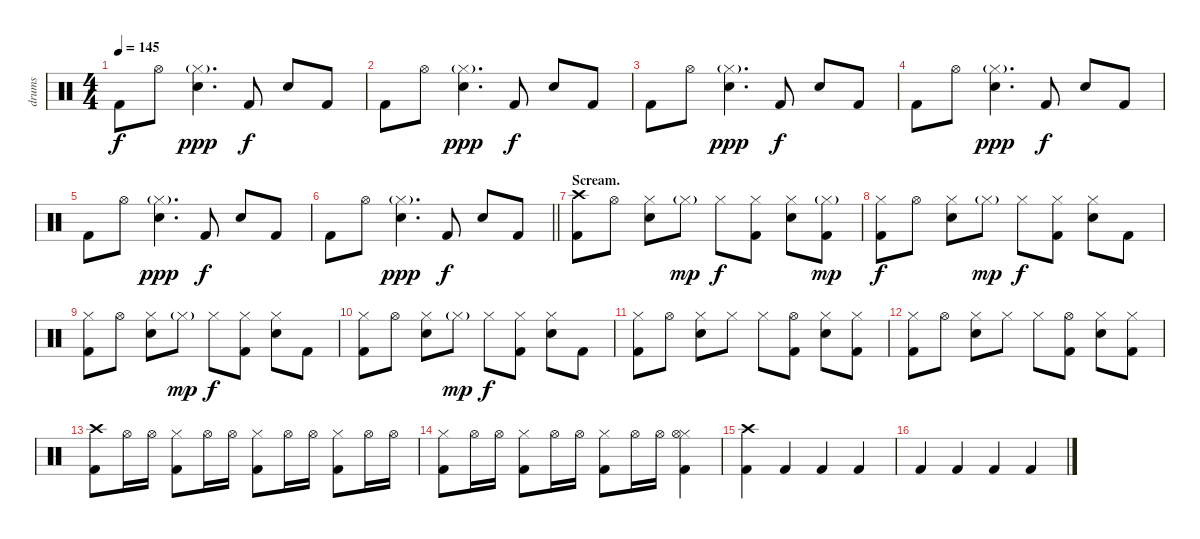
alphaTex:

\track ("drums" "drums") {instrument percussion}
\staff {score}
\articulation defaults
\ts (4 4)
\tempo 145
\clef neutral
\ks c "Kick (hit) 2".8{dy f} "Hi-Hat (open)".8
("Hi-Hat (closed)"{g} "Snare (hit) 2").4{d dy ppp} "Kick (hit) 2".8{dy f} "Snare (hit) 2".8 "Kick (hit) 2".8 |
"Kick (hit) 2".8 "Hi-Hat (open)".8 ("Hi-Hat (closed)"{g} "Snare (hit) 2").4{d dy ppp} "Kick (hit) 2".8{dy f} "Snare (hit) 2".8 "Kick (hit) 2".8 |
"Kick (hit) 2".8 "Hi-Hat (open)".8 ("Hi-Hat (closed)"{g} "Snare (hit) 2").4{d dy ppp} "Kick (hit) 2".8{dy f} "Snare (hit) 2".8 "Kick (hit) 2".8 |
"Kick (hit) 2".8 "Hi-Hat (open)".8 ("Hi-Hat (closed)"{g} "Snare (hit) 2").4{d dy ppp} "Kick (hit) 2".8{dy f} "Snare (hit) 2".8 "Kick (hit) 2".8 |
"Kick (hit) 2".8 "Hi-Hat (open)".8 ("Hi-Hat (closed)"{g} "Snare (hit) 2").4{d dy ppp} "Kick (hit) 2".8{dy f} "Snare (hit) 2".8 "Kick (hit) 2".8 |
\barLineRight lightlight "Kick (hit) 2".8 "Hi-Hat (open)".8
("Hi-Hat (closed)"{g} "Snare (hit) 2").4{d dy ppp} "Kick (hit) 2".8{dy f} "Snare (hit) 2".8 "Kick (hit) 2".8 |
\section ("" "Scream.")
("Crash high (hit)" "Kick (hit) 2").8 "Hi-Hat (open)".8 ("Hi-Hat (closed)" "Snare (hit) 2").8 "Hi-Hat (closed)"{g}.8{dy mp} "Hi-Hat (closed)".8{dy f} ("Hi-Hat (closed)" "Kick (hit) 2").8 ("Hi-Hat (closed)" "Snare (hit) 2").8 ("Hi-Hat (closed)"{g} "Kick (hit) 2").8{dy mp} |
("Hi-Hat (closed)" "Kick (hit) 2").8{dy f} "Hi-Hat (open)".8 ("Hi-Hat (closed)" "Snare (hit) 2").8 "Hi-Hat (closed)"{g}.8{dy mp} "Hi-Hat (closed)".8{dy f} ("Hi-Hat (closed)" "Kick (hit) 2").8 ("Hi-Hat (closed)" "Snare (hit) 2").8 "Kick (hit) 2".8 |
("Hi-Hat (closed)" "Kick (hit) 2").8 "Hi-Hat (open)".8 ("Hi-Hat (closed)" "Snare (hit) 2").8 "Hi-Hat (closed)"{g}.8{dy mp} "Hi-Hat (closed)".8{dy f} ("Hi-Hat (closed)" "Kick (hit) 2").8 ("Hi-Hat (closed)" "Snare (hit) 2").8 "Kick (hit) 2".8 |
("Hi-Hat (closed)" "Kick (hit) 2").8 "Hi-Hat (open)".8 ("Hi-Hat (closed)" "Snare (hit) 2").8 "Hi-Hat (closed)"{g}.8{dy mp} "Hi-Hat (closed)".8{dy f} ("Hi-Hat (closed)" "Kick (hit) 2").8 ("Hi-Hat (closed)" "Snare (hit) 2").8 "Kick (hit) 2".8 |
("Hi-Hat (closed)" "Kick (hit) 2").8 "Hi-Hat (open)".8 ("Hi-Hat (closed)" "Snare (hit) 2").8 "Hi-Hat (closed)".8 "Hi-Hat (closed)".8 ("Hi-Hat (open)" "Kick (hit) 2").8 ("Hi-Hat (closed)" "Snare (hit) 2").8 ("Hi-Hat (closed)" "Kick (hit) 2").8 |
("Hi-Hat (closed)" "Kick (hit) 2").8 "Hi-Hat (open)".8 ("Hi-Hat (closed)" "Snare (hit) 2").8 "Hi-Hat (closed)".8 "Hi-Hat (closed)".8 ("Hi-Hat (open)" "Kick (hit) 2").8 ("Hi-Hat (closed)" "Snare (hit) 2").8 ("Hi-Hat (closed)" "Kick (hit) 2").8 |
("Crash high (hit)" "Kick (hit) 2").8 "Hi-Hat (open)".16 "Hi-Hat (open)".16 ("Hi-Hat (closed)" "Kick (hit) 2").8 "Hi-Hat (open)".16 "Hi-Hat (open)".16 ("Hi-Hat (closed)" "Kick (hit) 2").8 "Hi-Hat (open)".16 "Hi-Hat (open)".16 ("Hi-Hat (closed)" "Kick (hit) 2").8 "Hi-Hat (open)".16 "Hi-Hat (open)".16 |
("Hi-Hat (closed)" "Kick (hit) 2").8 "Hi-Hat (open)".16 "Hi-Hat (open)".16 ("Hi-Hat (closed)" "Kick (hit) 2").8 "Hi-Hat (open)".16 "Hi-Hat (open)".16 ("Hi-Hat (closed)" "Kick (hit) 2").8 "Hi-Hat (open)".16 "Hi-Hat (open)".16 ("Hi-Hat (closed)" "Hi-Hat (open)" "Kick (hit) 2").4 |
("Crash high (hit)" "Kick (hit) 2").4 "Kick (hit) 2".4 "Kick (hit) 2".4 "Kick (hit) 2".4 |
"Kick (hit) 2".4 "Kick (hit) 2".4 "Kick (hit) 2".4 "Kick (hit) 2".4
